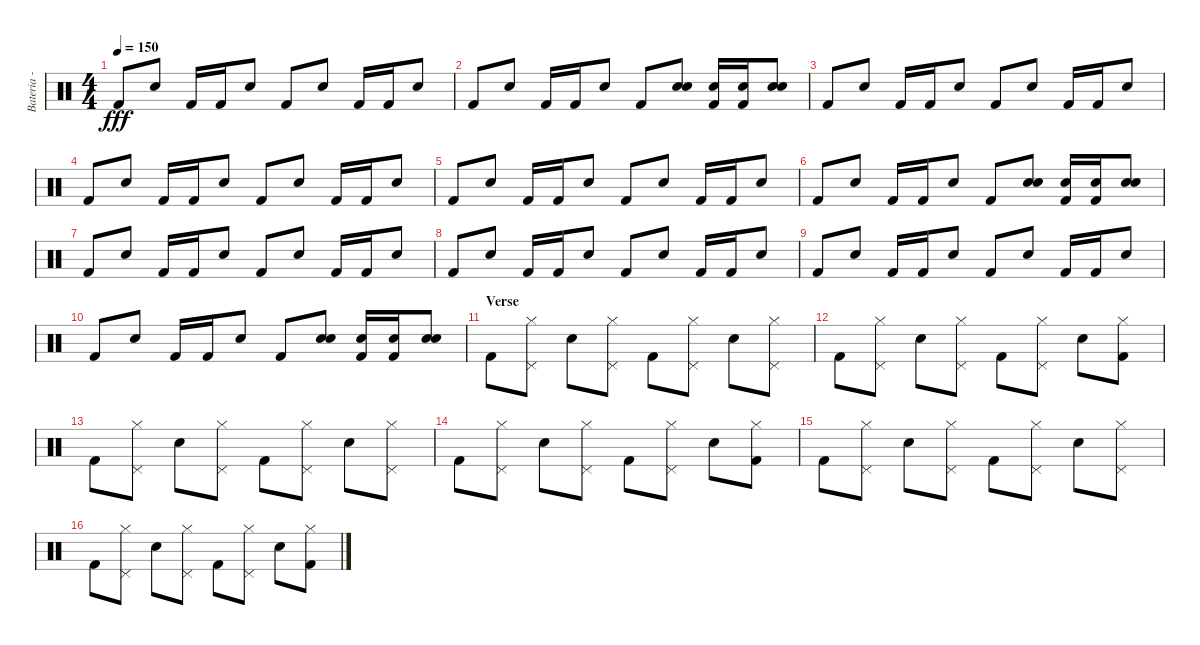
\track ("Bateria - Larzon" "Bateria - ") {instrument percussion}
\staff {score}
\articulation defaults
\ts (4 4)
\tempo 150
\clef neutral
\ks c "Kick (hit) 2".8{dy fff} "Electric Snare (hit)".8 "Kick (hit) 2".16 "Kick (hit) 2".16 "Electric Snare (hit)".8 "Kick (hit) 2".8 "Electric Snare (hit)".8 "Kick (hit) 2".16 "Kick (hit) 2".16 "Electric Snare (hit)".8
|
"Kick (hit) 2".8 "Electric Snare (hit)".8 "Kick (hit) 2".16 "Kick (hit) 2".16 "Electric Snare (hit)".8 "Kick (hit) 2".8 ("Electric Snare (hit)" "Electric Snare (hit)").8 ("Kick (hit) 2" "Electric Snare (hit)").16 ("Kick (hit) 2" "Electric Snare (hit)").16 ("Electric Snare (hit)" "Electric Snare (hit)").8 |
"Kick (hit) 2".8 "Electric Snare (hit)".8 "Kick (hit) 2".16 "Kick (hit) 2".16 "Electric Snare (hit)".8 "Kick (hit) 2".8 "Electric Snare (hit)".8 "Kick (hit) 2".16 "Kick (hit) 2".16 "Electric Snare (hit)".8 |
"Kick (hit) 2".8 "Electric Snare (hit)".8 "Kick (hit) 2".16 "Kick (hit) 2".16 "Electric Snare (hit)".8 "Kick (hit) 2".8 "Electric Snare (hit)".8 "Kick (hit) 2".16 "Kick (hit) 2".16 "Electric Snare (hit)".8 |
"Kick (hit) 2".8 "Electric Snare (hit)".8 "Kick (hit) 2".16 "Kick (hit) 2".16 "Electric Snare (hit)".8 "Kick (hit) 2".8 "Electric Snare (hit)".8 "Kick (hit) 2".16 "Kick (hit) 2".16 "Electric Snare (hit)".8 |
"Kick (hit) 2".8 "Electric Snare (hit)".8 "Kick (hit) 2".16 "Kick (hit) 2".16 "Electric Snare (hit)".8 "Kick (hit) 2".8 ("Electric Snare (hit)" "Electric Snare (hit)").8 ("Kick (hit) 2" "Electric Snare (hit)").16 ("Kick (hit) 2" "Electric Snare (hit)").16 ("Electric Snare (hit)" "Electric Snare (hit)").8 |
"Kick (hit) 2".8 "Electric Snare (hit)".8 "Kick (hit) 2".16 "Kick (hit) 2".16 "Electric Snare (hit)".8 "Kick (hit) 2".8 "Electric Snare (hit)".8 "Kick (hit) 2".16 "Kick (hit) 2".16 "Electric Snare (hit)".8 |
"Kick (hit) 2".8 "Electric Snare (hit)".8 "Kick (hit) 2".16 "Kick (hit) 2".16 "Electric Snare (hit)".8 "Kick (hit) 2".8 "Electric Snare (hit)".8 "Kick (hit) 2".16 "Kick (hit) 2".16 "Electric Snare (hit)".8 |
"Kick (hit) 2".8 "Electric Snare (hit)".8 "Kick (hit) 2".16 "Kick (hit) 2".16 "Electric Snare (hit)".8 "Kick (hit) 2".8 "Electric Snare (hit)".8 "Kick (hit) 2".16 "Kick (hit) 2".16 "Electric Snare (hit)".8 |
"Kick (hit) 2".8 "Electric Snare (hit)".8 "Kick (hit) 2".16 "Kick (hit) 2".16 "Electric Snare (hit)".8 "Kick (hit) 2".8 ("Electric Snare (hit)" "Electric Snare (hit)").8 ("Kick (hit) 2" "Electric Snare (hit)").16 ("Kick (hit) 2" "Electric Snare (hit)").16 ("Electric Snare (hit)" "Electric Snare (hit)").8 |
\section ("" "Verse")
"Kick (hit) 2".8 ("Hi-Hat (closed)" "Pedal Hi-Hat (hit)").8 "Electric Snare (hit)".8 ("Hi-Hat (closed)" "Pedal Hi-Hat (hit)").8 "Kick (hit) 2".8 ("Hi-Hat (closed)" "Pedal Hi-Hat (hit)").8 "Electric Snare (hit)".8 ("Hi-Hat (closed)" "Pedal Hi-Hat (hit)").8 |
"Kick (hit) 2".8 ("Hi-Hat (closed)" "Pedal Hi-Hat (hit)").8 "Electric Snare (hit)".8 ("Hi-Hat (closed)" "Pedal Hi-Hat (hit)").8 "Kick (hit) 2".8 ("Hi-Hat (closed)" "Pedal Hi-Hat (hit)").8 "Electric Snare (hit)".8 ("Kick (hit) 2" "Hi-Hat (closed)").8 |
"Kick (hit) 2".8 ("Hi-Hat (closed)" "Pedal Hi-Hat (hit)").8 "Electric Snare (hit)".8 ("Hi-Hat (closed)" "Pedal Hi-Hat (hit)").8 "Kick (hit) 2".8 ("Hi-Hat (closed)" "Pedal Hi-Hat (hit)").8 "Electric Snare (hit)".8 ("Hi-Hat (closed)" "Pedal Hi-Hat (hit)").8 |
"Kick (hit) 2".8 ("Hi-Hat (closed)" "Pedal Hi-Hat (hit)").8 "Electric Snare (hit)".8 ("Hi-Hat (closed)" "Pedal Hi-Hat (hit)").8 "Kick (hit) 2".8 ("Hi-Hat (closed)" "Pedal Hi-Hat (hit)").8 "Electric Snare (hit)".8 ("Kick (hit) 2" "Hi-Hat (closed)").8 |
"Kick (hit) 2".8 ("Hi-Hat (closed)" "Pedal Hi-Hat (hit)").8 "Electric Snare (hit)".8 ("Hi-Hat (closed)" "Pedal Hi-Hat (hit)").8 "Kick (hit) 2".8 ("Hi-Hat (closed)" "Pedal Hi-Hat (hit)").8 "Electric Snare (hit)".8 ("Hi-Hat (closed)" "Pedal Hi-Hat (hit)").8 |
"Kick (hit) 2".8 ("Hi-Hat (closed)" "Pedal Hi-Hat (hit)").8 "Electric Snare (hit)".8 ("Hi-Hat (closed)" "Pedal Hi-Hat (hit)").8 "Kick (hit) 2".8 ("Hi-Hat (closed)" "Pedal Hi-Hat (hit)").8 "Electric Snare (hit)".8 ("Kick (hit) 2" "Hi-Hat (closed)").8
